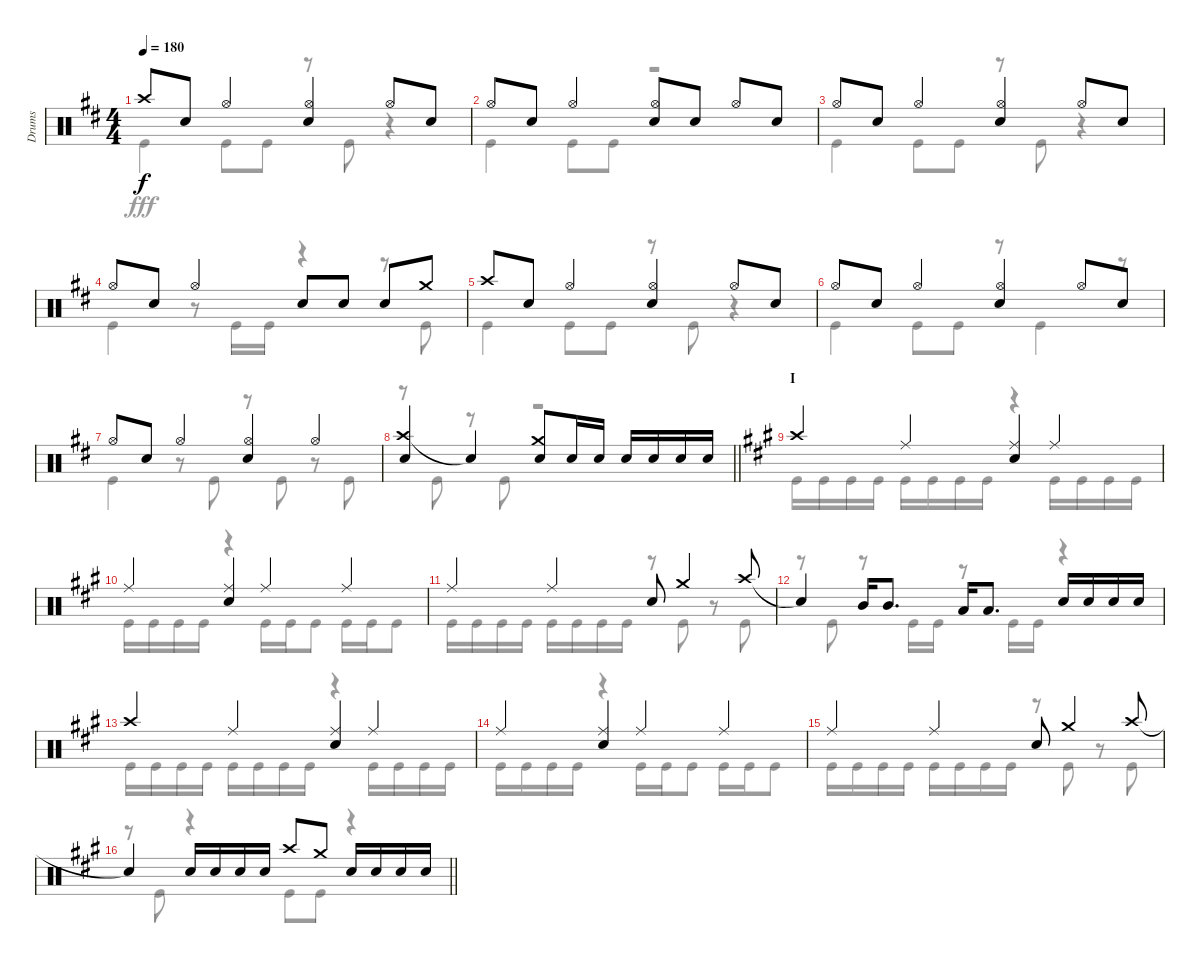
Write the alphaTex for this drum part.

\track ("Drums" "Drums") {instrument percussion}
\staff {score}
\articulation defaults
\voice
\ts (4 4)
\tempo 180
\clef neutral
\ks d "Crash high (hit)".8{dy f} "Snare (hit) 2".8 "Hi-Hat (open)".4
("Hi-Hat (open)" "Snare (hit) 2").4 "Hi-Hat (open)".8 "Snare (hit) 2".8 |
"Hi-Hat (open)".8 "Snare (hit) 2".8 "Hi-Hat (open)".4 ("Hi-Hat (open)" "Snare (hit) 2").8 "Snare (hit) 2".8 "Hi-Hat (open)".8 "Snare (hit) 2".8 |
"Hi-Hat (open)".8 "Snare (hit) 2".8 "Hi-Hat (open)".4 ("Hi-Hat (open)" "Snare (hit) 2").4 "Hi-Hat (open)".8 "Snare (hit) 2".8 |
"Hi-Hat (open)".8 "Snare (hit) 2".8 "Hi-Hat (open)".4 "Snare (hit) 2".8 "Snare (hit) 2".8 "Snare (hit) 2".8 "Crash medium (hit)".8 |
"Crash high (hit)".8 "Snare (hit) 2".8 "Hi-Hat (open)".4 ("Hi-Hat (open)" "Snare (hit) 2").4 "Hi-Hat (open)".8 "Snare (hit) 2".8 |
"Hi-Hat (open)".8 "Snare (hit) 2".8 "Hi-Hat (open)".4 ("Hi-Hat (open)" "Snare (hit) 2").4 "Hi-Hat (open)".8 "Snare (hit) 2".8 |
"Hi-Hat (open)".8 "Snare (hit) 2".8 "Hi-Hat (open)".4 ("Hi-Hat (open)" "Snare (hit) 2").4 "Hi-Hat (open)".4 |
\barLineRight lightlight
("Crash high (hit)" "Snare (hit) 2").4 "Snare (hit)"{t}.4 ("Crash medium (hit)" "Snare (hit) 2").8 "Snare (hit) 2".16 "Snare (hit) 2".16 "Snare (hit) 2".16 "Snare (hit) 2".16 "Snare (hit) 2".16 "Snare (hit) 2".16 |
\section ("" "I")
\ks a "Crash high (hit)".4 "Ride (middle)".4
("Ride (middle)" "Snare (hit) 2").4 "Ride (middle)".4 |
"Ride (middle)".4 ("Ride (middle)" "Snare (hit) 2").4 "Ride (middle)".4 "Ride (middle)".4 |
"Ride (middle)".4 "Ride (middle)".4 "Snare (hit) 2".8 "Crash medium (hit)".4 "Crash high (hit)".8 |
"Snare (hit)"{t}.4 "Mid Tom (hit)".16 "Mid Tom (hit)".8{d} "Low Tom (hit)".16 "Low Tom (hit)".8{d} "Snare (hit) 2".16 "Snare (hit) 2".16 "Snare (hit) 2".16 "Snare (hit) 2".16 |
"Crash high (hit)".4 "Ride (middle)".4 ("Ride (middle)" "Snare (hit) 2").4 "Ride (middle)".4 |
"Ride (middle)".4 ("Ride (middle)" "Snare (hit) 2").4 "Ride (middle)".4 "Ride (middle)".4 |
"Ride (middle)".4 "Ride (middle)".4 "Snare (hit) 2".8 "Crash medium (hit)".4 "Crash high (hit)".8 |
\barLineRight lightlight "Snare (hit)"{t}.4 "Snare (hit) 2".16 "Snare (hit) 2".16 "Snare (hit) 2".16 "Snare (hit) 2".16 "Crash high (hit)".8 "Crash medium (hit)".8 "Snare (hit) 2".16 "Snare (hit) 2".16 "Snare (hit) 2".16 "Snare (hit) 2".16
\voice
\clef neutral
\ottava regular
\simile none
\ks d "Kick (hit)".4{dy fff} "Kick (hit)".8 "Kick (hit)".8
r.8 "Kick (hit)".8 r.4 |
"Kick (hit)".4 "Kick (hit)".8 "Kick (hit)".8 r.2 |
"Kick (hit)".4 "Kick (hit)".8 "Kick (hit)".8 r.8 "Kick (hit)".8 r.4 |
"Kick (hit)".4 r.8 "Kick (hit)".16 "Kick (hit)".16 r.4 r.8 "Kick (hit)".8 |
"Kick (hit)".4 "Kick (hit)".8 "Kick (hit)".8 r.8 "Kick (hit)".8 r.4 |
"Kick (hit)".4 "Kick (hit)".8 "Kick (hit)".8 r.8 "Kick (hit)".4 r.8 |
"Kick (hit)".4 r.8 "Kick (hit)".8 r.8 "Kick (hit)".8 r.8 "Kick (hit)".8 |
\barLineRight lightlight
r.8 "Kick (hit)".8 r.8 "Kick (hit)".8 r.2 |
\ks a "Kick (hit)".16 "Kick (hit)".16 "Kick (hit)".16 "Kick (hit)".16 "Kick (hit)".16 "Kick (hit)".16 "Kick (hit)".16 "Kick (hit)".16
r.4 "Kick (hit)".16 "Kick (hit)".16 "Kick (hit)".16 "Kick (hit)".16 |
"Kick (hit)".16 "Kick (hit)".16 "Kick (hit)".16 "Kick (hit)".16 r.4 "Kick (hit)".16 "Kick (hit)".16 "Kick (hit)".8 "Kick (hit)".16 "Kick (hit)".16 "Kick (hit)".8 |
"Kick (hit)".16 "Kick (hit)".16 "Kick (hit)".16 "Kick (hit)".16 "Kick (hit)".16 "Kick (hit)".16 "Kick (hit)".16 "Kick (hit)".16 r.8 "Kick (hit)".8 r.8 "Kick (hit)".8 |
r.8 "Kick (hit)".8 r.8 "Kick (hit)".16 "Kick (hit)".16 r.8 "Kick (hit)".16 "Kick (hit)".16 r.4 |
"Kick (hit)".16 "Kick (hit)".16 "Kick (hit)".16 "Kick (hit)".16 "Kick (hit)".16 "Kick (hit)".16 "Kick (hit)".16 "Kick (hit)".16 r.4 "Kick (hit)".16 "Kick (hit)".16 "Kick (hit)".16 "Kick (hit)".16 |
"Kick (hit)".16 "Kick (hit)".16 "Kick (hit)".16 "Kick (hit)".16 r.4 "Kick (hit)".16 "Kick (hit)".16 "Kick (hit)".8 "Kick (hit)".16 "Kick (hit)".16 "Kick (hit)".8 |
"Kick (hit)".16 "Kick (hit)".16 "Kick (hit)".16 "Kick (hit)".16 "Kick (hit)".16 "Kick (hit)".16 "Kick (hit)".16 "Kick (hit)".16 r.8 "Kick (hit)".8 r.8 "Kick (hit)".8 |
\barLineRight lightlight
r.8 "Kick (hit)".8 r.4 "Kick (hit)".8 "Kick (hit)".8 r.4
